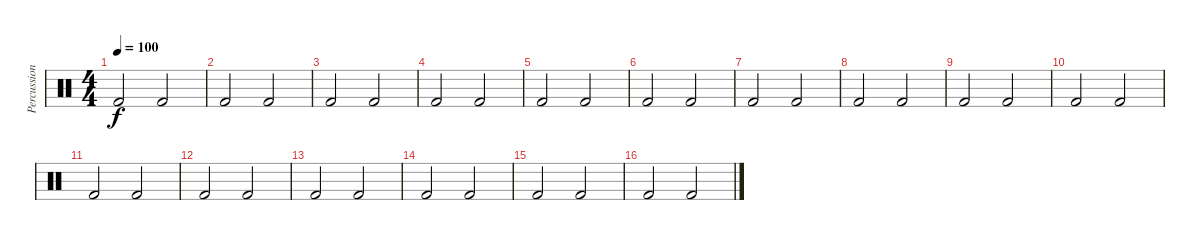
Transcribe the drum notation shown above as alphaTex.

\track ("Percussion" "Percussion") {mute instrument percussion}
\staff {score}
\articulation defaults
\ts (4 4)
\tempo 100
\clef neutral
\ks c "Kick (hit) 2".2{dy f} "Kick (hit) 2".2
|
"Kick (hit) 2".2 "Kick (hit) 2".2 |
"Kick (hit) 2".2 "Kick (hit) 2".2 |
"Kick (hit) 2".2 "Kick (hit) 2".2 |
"Kick (hit) 2".2 "Kick (hit) 2".2 |
"Kick (hit) 2".2 "Kick (hit) 2".2 |
"Kick (hit) 2".2 "Kick (hit) 2".2 |
"Kick (hit) 2".2 "Kick (hit) 2".2 |
"Kick (hit) 2".2 "Kick (hit) 2".2 |
"Kick (hit) 2".2 "Kick (hit) 2".2 |
"Kick (hit) 2".2 "Kick (hit) 2".2 |
"Kick (hit) 2".2 "Kick (hit) 2".2 |
"Kick (hit) 2".2 "Kick (hit) 2".2 |
"Kick (hit) 2".2 "Kick (hit) 2".2 |
"Kick (hit) 2".2 "Kick (hit) 2".2 |
"Kick (hit) 2".2 "Kick (hit) 2".2
